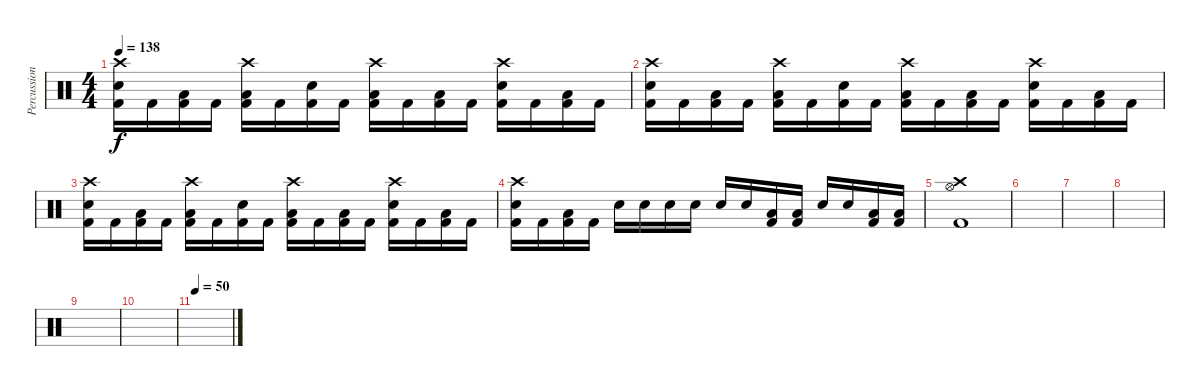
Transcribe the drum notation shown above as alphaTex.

\track ("Percussion" "Percussion") {instrument percussion}
\staff {score}
\articulation defaults
\ts (4 4)
\tempo 138
\clef neutral
\ks c
("Crash high (hit)" "Electric Snare (hit)" "Kick (hit) 2").16{dy f} "Kick (hit) 2".16 ("Low Tom (hit)" "Kick (hit) 2").16 "Kick (hit) 2".16 ("Crash high (hit)" "Low Tom (hit)" "Kick (hit) 2").16 "Kick (hit) 2".16 ("Electric Snare (hit)" "Kick (hit) 2").16 "Kick (hit) 2".16 ("Crash high (hit)" "Low Tom (hit)" "Kick (hit) 2").16 "Kick (hit) 2".16 ("Low Tom (hit)" "Kick (hit) 2").16 "Kick (hit) 2".16 ("Crash high (hit)" "Electric Snare (hit)" "Kick (hit) 2").16 "Kick (hit) 2".16 ("Low Tom (hit)" "Kick (hit) 2").16 "Kick (hit) 2".16 |
("Crash high (hit)" "Electric Snare (hit)" "Kick (hit) 2").16 "Kick (hit) 2".16 ("Low Tom (hit)" "Kick (hit) 2").16 "Kick (hit) 2".16 ("Crash high (hit)" "Low Tom (hit)" "Kick (hit) 2").16 "Kick (hit) 2".16 ("Electric Snare (hit)" "Kick (hit) 2").16 "Kick (hit) 2".16 ("Crash high (hit)" "Low Tom (hit)" "Kick (hit) 2").16 "Kick (hit) 2".16 ("Low Tom (hit)" "Kick (hit) 2").16 "Kick (hit) 2".16 ("Crash high (hit)" "Electric Snare (hit)" "Kick (hit) 2").16 "Kick (hit) 2".16 ("Low Tom (hit)" "Kick (hit) 2").16 "Kick (hit) 2".16 |
("Crash high (hit)" "Electric Snare (hit)" "Kick (hit) 2").16 "Kick (hit) 2".16 ("Low Tom (hit)" "Kick (hit) 2").16 "Kick (hit) 2".16 ("Crash high (hit)" "Low Tom (hit)" "Kick (hit) 2").16 "Kick (hit) 2".16 ("Electric Snare (hit)" "Kick (hit) 2").16 "Kick (hit) 2".16 ("Crash high (hit)" "Low Tom (hit)" "Kick (hit) 2").16 "Kick (hit) 2".16 ("Low Tom (hit)" "Kick (hit) 2").16 "Kick (hit) 2".16 ("Crash high (hit)" "Electric Snare (hit)" "Kick (hit) 2").16 "Kick (hit) 2".16 ("Low Tom (hit)" "Kick (hit) 2").16 "Kick (hit) 2".16 |
("Crash high (hit)" "Electric Snare (hit)" "Kick (hit) 2").16 "Kick (hit) 2".16 ("Low Tom (hit)" "Kick (hit) 2").16 "Kick (hit) 2".16 "Electric Snare (hit)".16 "Electric Snare (hit)".16 "Electric Snare (hit)".16 "Electric Snare (hit)".16 "Electric Snare (hit)".16 "Electric Snare (hit)".16 ("Low Tom (hit)" "Kick (hit) 2").16 ("Low Tom (hit)" "Kick (hit) 2").16 "Electric Snare (hit)".16 "Electric Snare (hit)".16 ("Low Tom (hit)" "Kick (hit) 2").16 ("Low Tom (hit)" "Kick (hit) 2").16 |
("Crash high (hit)" "Hi-Hat (open)" "Kick (hit) 2").1 |
|
|
|
|
|
\tempo 50
